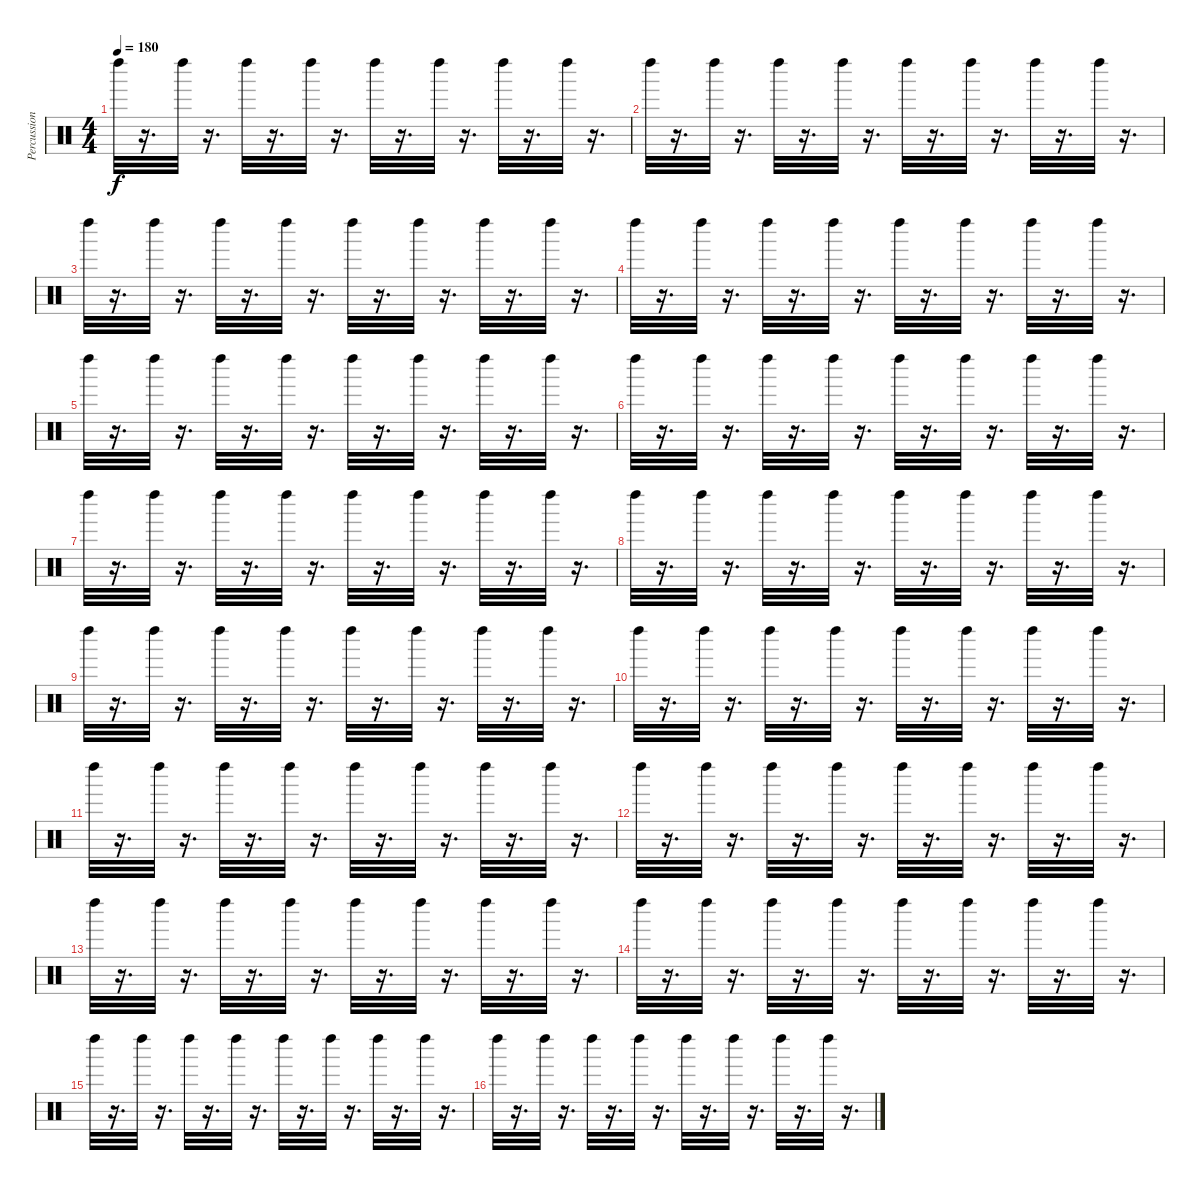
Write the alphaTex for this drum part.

\track ("Percussioni" "Percussion") {instrument percussion}
\staff {score}
\articulation defaults
\ts (4 4)
\tempo 180
\clef neutral
\ks c "Left Maraca (hit)".32{dy f}
r.16{d} "Left Maraca (hit)".32 r.16{d} "Left Maraca (hit)".32 r.16{d} "Left Maraca (hit)".32 r.16{d} "Left Maraca (hit)".32 r.16{d} "Left Maraca (hit)".32 r.16{d} "Left Maraca (hit)".32 r.16{d} "Left Maraca (hit)".32 r.16{d} |
"Left Maraca (hit)".32 r.16{d} "Left Maraca (hit)".32 r.16{d} "Left Maraca (hit)".32 r.16{d} "Left Maraca (hit)".32 r.16{d} "Left Maraca (hit)".32 r.16{d} "Left Maraca (hit)".32 r.16{d} "Left Maraca (hit)".32 r.16{d} "Left Maraca (hit)".32 r.16{d} |
"Left Maraca (hit)".32 r.16{d} "Left Maraca (hit)".32 r.16{d} "Left Maraca (hit)".32 r.16{d} "Left Maraca (hit)".32 r.16{d} "Left Maraca (hit)".32 r.16{d} "Left Maraca (hit)".32 r.16{d} "Left Maraca (hit)".32 r.16{d} "Left Maraca (hit)".32 r.16{d} |
"Left Maraca (hit)".32 r.16{d} "Left Maraca (hit)".32 r.16{d} "Left Maraca (hit)".32 r.16{d} "Left Maraca (hit)".32 r.16{d} "Left Maraca (hit)".32 r.16{d} "Left Maraca (hit)".32 r.16{d} "Left Maraca (hit)".32 r.16{d} "Left Maraca (hit)".32 r.16{d} |
"Left Maraca (hit)".32 r.16{d} "Left Maraca (hit)".32 r.16{d} "Left Maraca (hit)".32 r.16{d} "Left Maraca (hit)".32 r.16{d} "Left Maraca (hit)".32 r.16{d} "Left Maraca (hit)".32 r.16{d} "Left Maraca (hit)".32 r.16{d} "Left Maraca (hit)".32 r.16{d} |
"Left Maraca (hit)".32 r.16{d} "Left Maraca (hit)".32 r.16{d} "Left Maraca (hit)".32 r.16{d} "Left Maraca (hit)".32 r.16{d} "Left Maraca (hit)".32 r.16{d} "Left Maraca (hit)".32 r.16{d} "Left Maraca (hit)".32 r.16{d} "Left Maraca (hit)".32 r.16{d} |
"Left Maraca (hit)".32 r.16{d} "Left Maraca (hit)".32 r.16{d} "Left Maraca (hit)".32 r.16{d} "Left Maraca (hit)".32 r.16{d} "Left Maraca (hit)".32 r.16{d} "Left Maraca (hit)".32 r.16{d} "Left Maraca (hit)".32 r.16{d} "Left Maraca (hit)".32 r.16{d} |
"Left Maraca (hit)".32 r.16{d} "Left Maraca (hit)".32 r.16{d} "Left Maraca (hit)".32 r.16{d} "Left Maraca (hit)".32 r.16{d} "Left Maraca (hit)".32 r.16{d} "Left Maraca (hit)".32 r.16{d} "Left Maraca (hit)".32 r.16{d} "Left Maraca (hit)".32 r.16{d} |
"Left Maraca (hit)".32 r.16{d} "Left Maraca (hit)".32 r.16{d} "Left Maraca (hit)".32 r.16{d} "Left Maraca (hit)".32 r.16{d} "Left Maraca (hit)".32 r.16{d} "Left Maraca (hit)".32 r.16{d} "Left Maraca (hit)".32 r.16{d} "Left Maraca (hit)".32 r.16{d} |
"Left Maraca (hit)".32 r.16{d} "Left Maraca (hit)".32 r.16{d} "Left Maraca (hit)".32 r.16{d} "Left Maraca (hit)".32 r.16{d} "Left Maraca (hit)".32 r.16{d} "Left Maraca (hit)".32 r.16{d} "Left Maraca (hit)".32 r.16{d} "Left Maraca (hit)".32 r.16{d} |
"Left Maraca (hit)".32 r.16{d} "Left Maraca (hit)".32 r.16{d} "Left Maraca (hit)".32 r.16{d} "Left Maraca (hit)".32 r.16{d} "Left Maraca (hit)".32 r.16{d} "Left Maraca (hit)".32 r.16{d} "Left Maraca (hit)".32 r.16{d} "Left Maraca (hit)".32 r.16{d} |
"Left Maraca (hit)".32 r.16{d} "Left Maraca (hit)".32 r.16{d} "Left Maraca (hit)".32 r.16{d} "Left Maraca (hit)".32 r.16{d} "Left Maraca (hit)".32 r.16{d} "Left Maraca (hit)".32 r.16{d} "Left Maraca (hit)".32 r.16{d} "Left Maraca (hit)".32 r.16{d} |
"Left Maraca (hit)".32 r.16{d} "Left Maraca (hit)".32 r.16{d} "Left Maraca (hit)".32 r.16{d} "Left Maraca (hit)".32 r.16{d} "Left Maraca (hit)".32 r.16{d} "Left Maraca (hit)".32 r.16{d} "Left Maraca (hit)".32 r.16{d} "Left Maraca (hit)".32 r.16{d} |
"Left Maraca (hit)".32 r.16{d} "Left Maraca (hit)".32 r.16{d} "Left Maraca (hit)".32 r.16{d} "Left Maraca (hit)".32 r.16{d} "Left Maraca (hit)".32 r.16{d} "Left Maraca (hit)".32 r.16{d} "Left Maraca (hit)".32 r.16{d} "Left Maraca (hit)".32 r.16{d} |
"Left Maraca (hit)".32 r.16{d} "Left Maraca (hit)".32 r.16{d} "Left Maraca (hit)".32 r.16{d} "Left Maraca (hit)".32 r.16{d} "Left Maraca (hit)".32 r.16{d} "Left Maraca (hit)".32 r.16{d} "Left Maraca (hit)".32 r.16{d} "Left Maraca (hit)".32 r.16{d} |
"Left Maraca (hit)".32 r.16{d} "Left Maraca (hit)".32 r.16{d} "Left Maraca (hit)".32 r.16{d} "Left Maraca (hit)".32 r.16{d} "Left Maraca (hit)".32 r.16{d} "Left Maraca (hit)".32 r.16{d} "Left Maraca (hit)".32 r.16{d} "Left Maraca (hit)".32 r.16{d}
